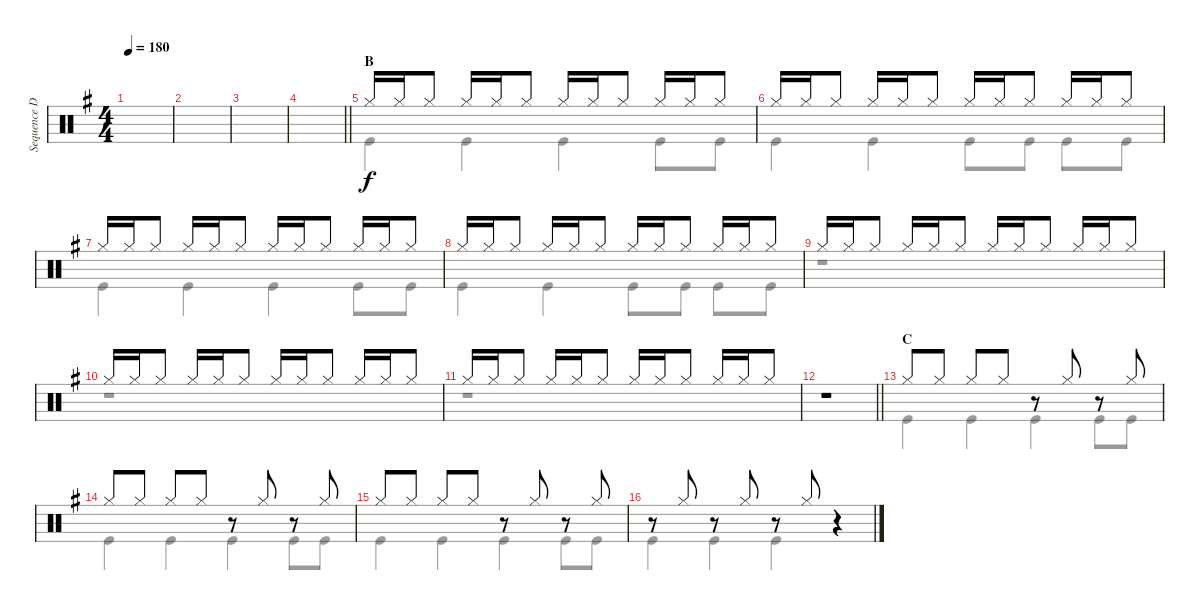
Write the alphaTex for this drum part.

\track ("Sequence Drums" "Sequence D") {instrument percussion}
\staff {score}
\articulation defaults
\voice
\ts (4 4)
\tempo 180
\clef neutral
\ks g
|
|
|
\barLineRight lightlight
|
\section ("" "B")
"Hi-Hat (closed)".16 "Hi-Hat (closed)".16 "Hi-Hat (closed)".8 "Hi-Hat (closed)".16 "Hi-Hat (closed)".16 "Hi-Hat (closed)".8 "Hi-Hat (closed)".16 "Hi-Hat (closed)".16 "Hi-Hat (closed)".8 "Hi-Hat (closed)".16 "Hi-Hat (closed)".16 "Hi-Hat (closed)".8 |
"Hi-Hat (closed)".16 "Hi-Hat (closed)".16 "Hi-Hat (closed)".8 "Hi-Hat (closed)".16 "Hi-Hat (closed)".16 "Hi-Hat (closed)".8 "Hi-Hat (closed)".16 "Hi-Hat (closed)".16 "Hi-Hat (closed)".8 "Hi-Hat (closed)".16 "Hi-Hat (closed)".16 "Hi-Hat (closed)".8 |
"Hi-Hat (closed)".16 "Hi-Hat (closed)".16 "Hi-Hat (closed)".8 "Hi-Hat (closed)".16 "Hi-Hat (closed)".16 "Hi-Hat (closed)".8 "Hi-Hat (closed)".16 "Hi-Hat (closed)".16 "Hi-Hat (closed)".8 "Hi-Hat (closed)".16 "Hi-Hat (closed)".16 "Hi-Hat (closed)".8 |
"Hi-Hat (closed)".16 "Hi-Hat (closed)".16 "Hi-Hat (closed)".8 "Hi-Hat (closed)".16 "Hi-Hat (closed)".16 "Hi-Hat (closed)".8 "Hi-Hat (closed)".16 "Hi-Hat (closed)".16 "Hi-Hat (closed)".8 "Hi-Hat (closed)".16 "Hi-Hat (closed)".16 "Hi-Hat (closed)".8 |
"Hi-Hat (closed)".16 "Hi-Hat (closed)".16 "Hi-Hat (closed)".8 "Hi-Hat (closed)".16 "Hi-Hat (closed)".16 "Hi-Hat (closed)".8 "Hi-Hat (closed)".16 "Hi-Hat (closed)".16 "Hi-Hat (closed)".8 "Hi-Hat (closed)".16 "Hi-Hat (closed)".16 "Hi-Hat (closed)".8 |
"Hi-Hat (closed)".16 "Hi-Hat (closed)".16 "Hi-Hat (closed)".8 "Hi-Hat (closed)".16 "Hi-Hat (closed)".16 "Hi-Hat (closed)".8 "Hi-Hat (closed)".16 "Hi-Hat (closed)".16 "Hi-Hat (closed)".8 "Hi-Hat (closed)".16 "Hi-Hat (closed)".16 "Hi-Hat (closed)".8 |
"Hi-Hat (closed)".16 "Hi-Hat (closed)".16 "Hi-Hat (closed)".8 "Hi-Hat (closed)".16 "Hi-Hat (closed)".16 "Hi-Hat (closed)".8 "Hi-Hat (closed)".16 "Hi-Hat (closed)".16 "Hi-Hat (closed)".8 "Hi-Hat (closed)".16 "Hi-Hat (closed)".16 "Hi-Hat (closed)".8 |
\barLineRight lightlight
r.1 |
\section ("" "C")
"Hi-Hat (closed)".8{dy f} "Hi-Hat (closed)".8 "Hi-Hat (closed)".8 "Hi-Hat (closed)".8 r.8 "Hi-Hat (closed)".8 r.8 "Hi-Hat (closed)".8 |
"Hi-Hat (closed)".8 "Hi-Hat (closed)".8 "Hi-Hat (closed)".8 "Hi-Hat (closed)".8 r.8 "Hi-Hat (closed)".8 r.8 "Hi-Hat (closed)".8 |
"Hi-Hat (closed)".8 "Hi-Hat (closed)".8 "Hi-Hat (closed)".8 "Hi-Hat (closed)".8 r.8 "Hi-Hat (closed)".8 r.8 "Hi-Hat (closed)".8 |
r.8 "Hi-Hat (closed)".8 r.8 "Hi-Hat (closed)".8 r.8 "Hi-Hat (closed)".8 r.4
\voice
\clef neutral
\ottava regular
\simile none
\ks g
|
|
|
\barLineRight lightlight
|
"Kick (hit)".4 "Kick (hit)".4 "Kick (hit)".4 "Kick (hit)".8 "Kick (hit)".8 |
"Kick (hit)".4 "Kick (hit)".4 "Kick (hit)".8 "Kick (hit)".8 "Kick (hit)".8 "Kick (hit)".8 |
"Kick (hit)".4 "Kick (hit)".4 "Kick (hit)".4 "Kick (hit)".8 "Kick (hit)".8 |
"Kick (hit)".4 "Kick (hit)".4 "Kick (hit)".8 "Kick (hit)".8 "Kick (hit)".8 "Kick (hit)".8 |
r.1 |
r.1 |
r.1 |
\barLineRight lightlight
|
"Kick (hit)".4 "Kick (hit)".4 "Kick (hit)".4 "Kick (hit)".8 "Kick (hit)".8 |
"Kick (hit)".4 "Kick (hit)".4 "Kick (hit)".4 "Kick (hit)".8 "Kick (hit)".8 |
"Kick (hit)".4 "Kick (hit)".4 "Kick (hit)".4 "Kick (hit)".8 "Kick (hit)".8 |
"Kick (hit)".4 "Kick (hit)".4 "Kick (hit)".4 r.4
